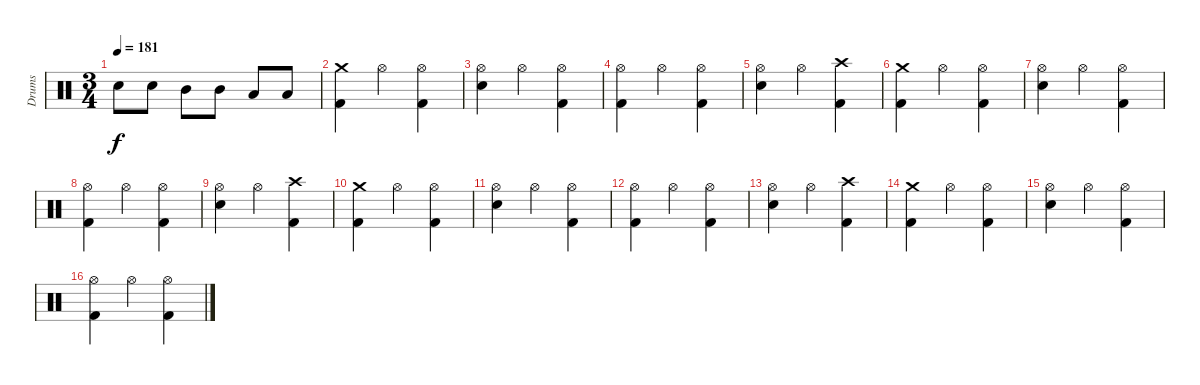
\track ("Drums" "Drums") {instrument percussion}
\staff {score}
\articulation defaults
\ts (3 4)
\tempo 181
\clef neutral
\ks c "Electric Snare (hit)".8{dy f} "Electric Snare (hit)".8 "Mid Tom (hit)".8 "Mid Tom (hit)".8 "Low Tom (hit)".8 "Low Tom (hit)".8
|
("Crash medium (hit)" "Kick (hit) 2").4 "Hi-Hat (open)".4 ("Hi-Hat (open)" "Kick (hit) 2").4 |
("Hi-Hat (open)" "Electric Snare (hit)").4 "Hi-Hat (open)".4 ("Hi-Hat (open)" "Kick (hit) 2").4 |
("Hi-Hat (open)" "Kick (hit) 2").4 "Hi-Hat (open)".4 ("Hi-Hat (open)" "Kick (hit) 2").4 |
("Hi-Hat (open)" "Electric Snare (hit)").4 "Hi-Hat (open)".4 ("Crash high (hit)" "Kick (hit) 2").4 |
("Crash medium (hit)" "Kick (hit) 2").4 "Hi-Hat (open)".4 ("Hi-Hat (open)" "Kick (hit) 2").4 |
("Hi-Hat (open)" "Electric Snare (hit)").4 "Hi-Hat (open)".4 ("Hi-Hat (open)" "Kick (hit) 2").4 |
("Hi-Hat (open)" "Kick (hit) 2").4 "Hi-Hat (open)".4 ("Hi-Hat (open)" "Kick (hit) 2").4 |
("Hi-Hat (open)" "Electric Snare (hit)").4 "Hi-Hat (open)".4 ("Crash high (hit)" "Kick (hit) 2").4 |
("Crash medium (hit)" "Kick (hit) 2").4 "Hi-Hat (open)".4 ("Hi-Hat (open)" "Kick (hit) 2").4 |
("Hi-Hat (open)" "Electric Snare (hit)").4 "Hi-Hat (open)".4 ("Hi-Hat (open)" "Kick (hit) 2").4 |
("Hi-Hat (open)" "Kick (hit) 2").4 "Hi-Hat (open)".4 ("Hi-Hat (open)" "Kick (hit) 2").4 |
("Hi-Hat (open)" "Electric Snare (hit)").4 "Hi-Hat (open)".4 ("Crash high (hit)" "Kick (hit) 2").4 |
("Crash medium (hit)" "Kick (hit) 2").4 "Hi-Hat (open)".4 ("Hi-Hat (open)" "Kick (hit) 2").4 |
("Hi-Hat (open)" "Electric Snare (hit)").4 "Hi-Hat (open)".4 ("Hi-Hat (open)" "Kick (hit) 2").4 |
("Hi-Hat (open)" "Kick (hit) 2").4 "Hi-Hat (open)".4 ("Hi-Hat (open)" "Kick (hit) 2").4
